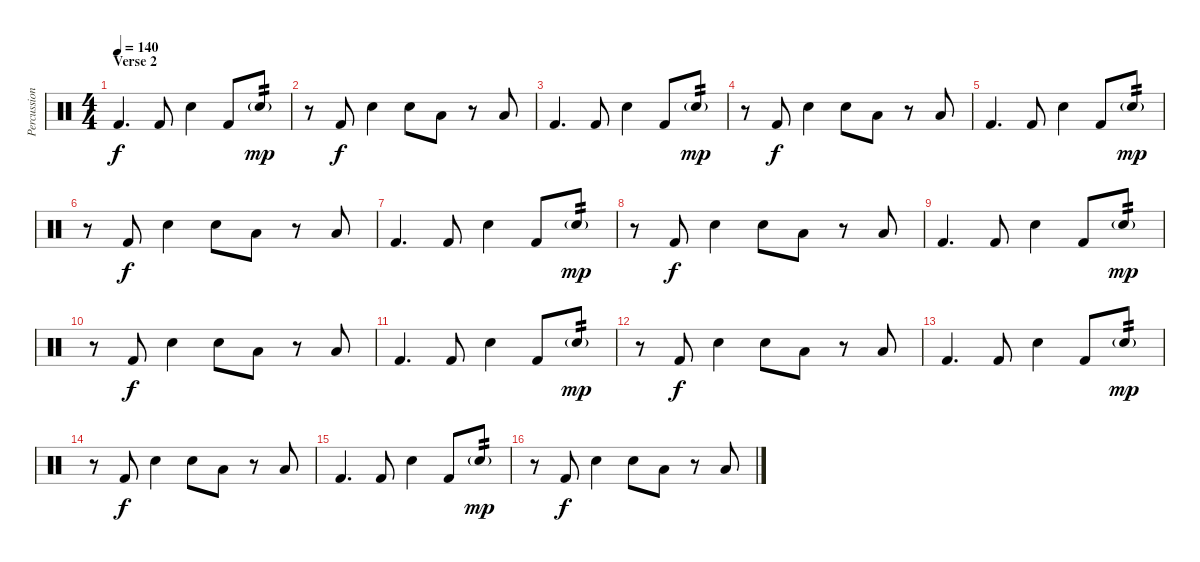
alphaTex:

\track ("Percussion" "Percussion") {instrument percussion}
\staff {score}
\articulation defaults
\ts (4 4)
\section ("" "Verse 2")
\tempo 140
\clef neutral
\ks c "Kick (hit) 2".4{d dy f} "Kick (hit) 2".8 "Electric Snare (hit)".4 "Kick (hit) 2".8 "Electric Snare (hit)"{g}.8{tp 2 dy mp}
|
r.8 "Kick (hit) 2".8{dy f} "Electric Snare (hit)".4 "Electric Snare (hit)".8 "Low Tom (hit)".8 r.8 "Low Floor Tom (hit)".8 |
"Kick (hit) 2".4{d} "Kick (hit) 2".8 "Electric Snare (hit)".4 "Kick (hit) 2".8 "Electric Snare (hit)"{g}.8{tp 2 dy mp} |
r.8 "Kick (hit) 2".8{dy f} "Electric Snare (hit)".4 "Electric Snare (hit)".8 "Low Tom (hit)".8 r.8 "Low Floor Tom (hit)".8 |
"Kick (hit) 2".4{d} "Kick (hit) 2".8 "Electric Snare (hit)".4 "Kick (hit) 2".8 "Electric Snare (hit)"{g}.8{tp 2 dy mp} |
r.8 "Kick (hit) 2".8{dy f} "Electric Snare (hit)".4 "Electric Snare (hit)".8 "Low Tom (hit)".8 r.8 "Low Floor Tom (hit)".8 |
"Kick (hit) 2".4{d} "Kick (hit) 2".8 "Electric Snare (hit)".4 "Kick (hit) 2".8 "Electric Snare (hit)"{g}.8{tp 2 dy mp} |
r.8 "Kick (hit) 2".8{dy f} "Electric Snare (hit)".4 "Electric Snare (hit)".8 "Low Tom (hit)".8 r.8 "Low Floor Tom (hit)".8 |
"Kick (hit) 2".4{d} "Kick (hit) 2".8 "Electric Snare (hit)".4 "Kick (hit) 2".8 "Electric Snare (hit)"{g}.8{tp 2 dy mp} |
r.8 "Kick (hit) 2".8{dy f} "Electric Snare (hit)".4 "Electric Snare (hit)".8 "Low Tom (hit)".8 r.8 "Low Floor Tom (hit)".8 |
"Kick (hit) 2".4{d} "Kick (hit) 2".8 "Electric Snare (hit)".4 "Kick (hit) 2".8 "Electric Snare (hit)"{g}.8{tp 2 dy mp} |
r.8 "Kick (hit) 2".8{dy f} "Electric Snare (hit)".4 "Electric Snare (hit)".8 "Low Tom (hit)".8 r.8 "Low Floor Tom (hit)".8 |
"Kick (hit) 2".4{d} "Kick (hit) 2".8 "Electric Snare (hit)".4 "Kick (hit) 2".8 "Electric Snare (hit)"{g}.8{tp 2 dy mp} |
r.8 "Kick (hit) 2".8{dy f} "Electric Snare (hit)".4 "Electric Snare (hit)".8 "Low Tom (hit)".8 r.8 "Low Floor Tom (hit)".8 |
"Kick (hit) 2".4{d} "Kick (hit) 2".8 "Electric Snare (hit)".4 "Kick (hit) 2".8 "Electric Snare (hit)"{g}.8{tp 2 dy mp} |
r.8 "Kick (hit) 2".8{dy f} "Electric Snare (hit)".4 "Electric Snare (hit)".8 "Low Tom (hit)".8 r.8 "Low Floor Tom (hit)".8
